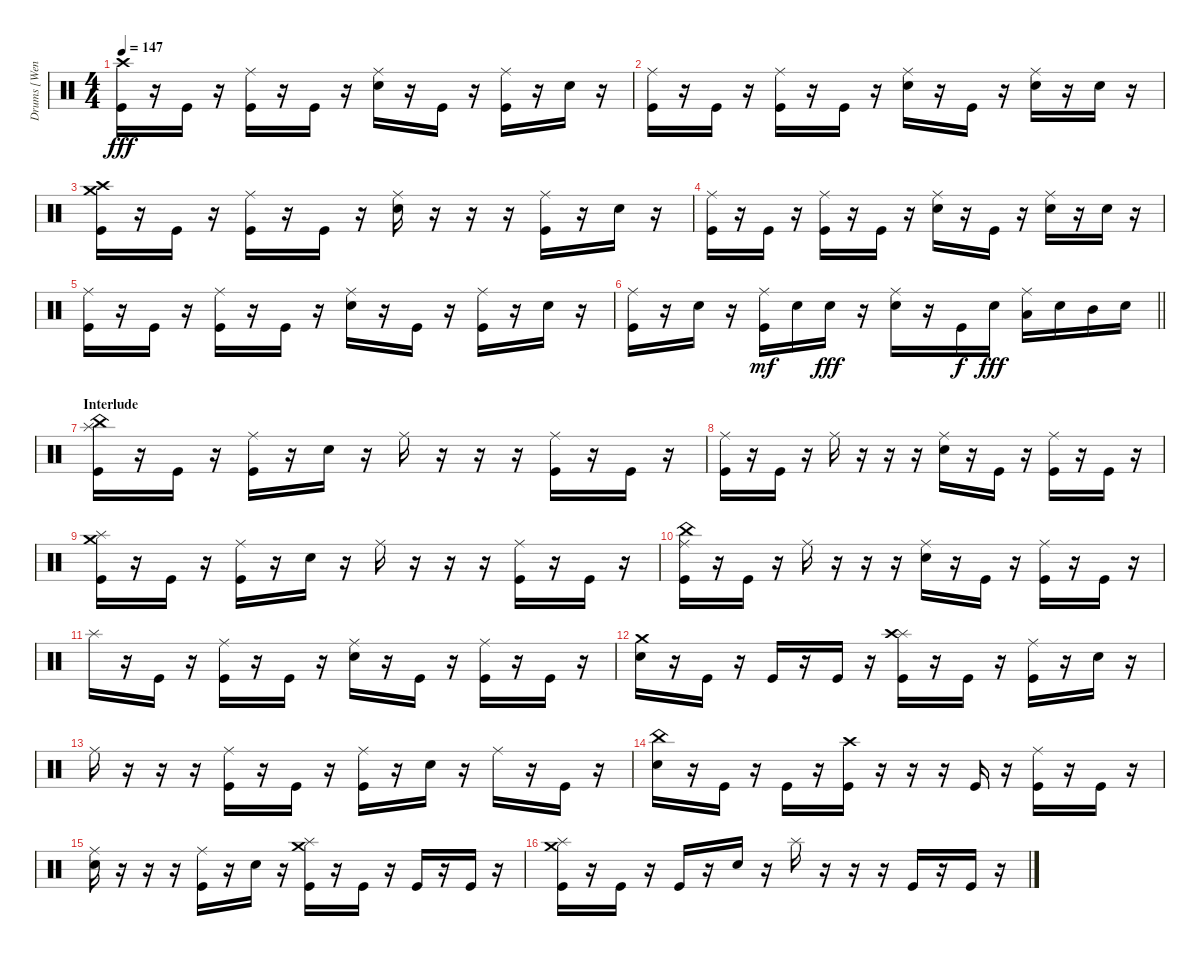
\track ("Drums [Wengren]" "Drums [Wen") {instrument percussion}
\staff {score}
\articulation defaults
\ts (4 4)
\tempo 147
\clef neutral
\ks c
("Crash high (hit)" "Kick (hit)").16{dy fff} r.16 "Kick (hit)".16 r.16 ("Ride (middle)" "Kick (hit)").16 r.16 "Kick (hit)".16 r.16 ("Ride (middle)" "Snare (hit) 2").16 r.16 "Kick (hit)".16 r.16 ("Ride (middle)" "Kick (hit)").16 r.16 "Snare (hit) 2".16 r.16 |
("Ride (middle)" "Kick (hit)").16 r.16 "Kick (hit)".16 r.16 ("Ride (middle)" "Kick (hit)").16 r.16 "Kick (hit)".16 r.16 ("Ride (middle)" "Snare (hit) 2").16 r.16 "Kick (hit)".16 r.16 ("Ride (middle)" "Snare (hit) 2").16 r.16 "Snare (hit) 2".16 r.16 |
("Crash high (hit)" "Crash medium (hit)" "Kick (hit)").16 r.16 "Kick (hit)".16 r.16 ("Ride (middle)" "Kick (hit)").16 r.16 "Kick (hit)".16 r.16 ("Ride (middle)" "Snare (hit) 2").16 r.16 r.16 r.16 ("Ride (middle)" "Kick (hit)").16 r.16 "Snare (hit) 2".16 r.16 |
("Ride (middle)" "Kick (hit)").16 r.16 "Kick (hit)".16 r.16 ("Ride (middle)" "Kick (hit)").16 r.16 "Kick (hit)".16 r.16 ("Ride (middle)" "Snare (hit) 2").16 r.16 "Kick (hit)".16 r.16 ("Ride (middle)" "Snare (hit) 2").16 r.16 "Snare (hit) 2".16 r.16 |
("Ride (middle)" "Kick (hit)").16 r.16 "Kick (hit)".16 r.16 ("Ride (middle)" "Kick (hit)").16 r.16 "Kick (hit)".16 r.16 ("Ride (middle)" "Snare (hit) 2").16 r.16 "Kick (hit)".16 r.16 ("Ride (middle)" "Kick (hit)").16 r.16 "Snare (hit) 2".16 r.16 |
\barLineRight lightlight
("Ride (middle)" "Kick (hit)").16 r.16 "Snare (hit) 2".16 r.16 ("Ride (middle)" "Kick (hit)").16{dy mf} "Snare (hit) 2".16 "Snare (hit) 2".16{dy fff} r.16 ("Ride (middle)" "Snare (hit) 2").16 r.16 "Kick (hit)".16{dy f} "Snare (hit) 2".16{dy fff} ("Ride (middle)" "Low Tom (hit)").16 "Snare (hit) 2".16 "Mid Tom (hit)".16 "Snare (hit) 2".16 |
\section ("" "Interlude")
("China (hit)" "Splash (hit)" "Kick (hit)").16 r.16 "Kick (hit)".16 r.16 ("Ride (middle)" "Kick (hit)").16 r.16 "Snare (hit) 2".16 r.16 "Ride (middle)".16 r.16 r.16 r.16 ("Ride (middle)" "Kick (hit)").16 r.16 "Kick (hit)".16 r.16 |
("Ride (middle)" "Kick (hit)").16 r.16 "Kick (hit)".16 r.16 "Ride (middle)".16 r.16 r.16 r.16 ("Ride (middle)" "Snare (hit) 2").16 r.16 "Kick (hit)".16 r.16 ("Ride (middle)" "Kick (hit)").16 r.16 "Kick (hit)".16 r.16 |
("Splash (hit)" "Crash medium (hit)" "Kick (hit)").16 r.16 "Kick (hit)".16 r.16 ("Ride (middle)" "Kick (hit)").16 r.16 "Snare (hit) 2".16 r.16 "Ride (middle)".16 r.16 r.16 r.16 ("Ride (middle)" "Kick (hit)").16 r.16 "Kick (hit)".16 r.16 |
("Ride (middle)" "China (hit)" "Kick (hit)").16 r.16 "Kick (hit)".16 r.16 "Ride (middle)".16 r.16 r.16 r.16 ("Ride (middle)" "Snare (hit) 2").16 r.16 "Kick (hit)".16 r.16 ("Ride (middle)" "Kick (hit)").16 r.16 "Kick (hit)".16 r.16 |
"Splash (hit)".16 r.16 "Kick (hit)".16 r.16 ("Ride (middle)" "Kick (hit)").16 r.16 "Kick (hit)".16 r.16 ("Ride (middle)" "Snare (hit) 2").16 r.16 "Kick (hit)".16 r.16 ("Ride (middle)" "Kick (hit)").16 r.16 "Kick (hit)".16 r.16 |
("Crash medium (hit)" "Snare (hit) 2").16 r.16 "Kick (hit)".16 r.16 "Kick (hit)".16 r.16 "Kick (hit)".16 r.16 ("Splash (hit)" "Crash high (hit)" "Kick (hit)").16 r.16 "Kick (hit)".16 r.16 ("Ride (middle)" "Kick (hit)").16 r.16 "Snare (hit) 2".16 r.16 |
"Ride (middle)".16 r.16 r.16 r.16 ("Ride (middle)" "Kick (hit)").16 r.16 "Kick (hit)".16 r.16 ("Ride (middle)" "Kick (hit)").16 r.16 "Snare (hit) 2".16 r.16 "Ride (middle)".16 r.16 "Kick (hit)".16 r.16 |
("China (hit)" "Snare (hit) 2").16 r.16 "Kick (hit)".16 r.16 "Kick (hit)".16 r.16 ("Crash high (hit)" "Kick (hit)").16 r.16 r.16 r.16 "Kick (hit)".16 r.16 ("Ride (middle)" "Kick (hit)").16 r.16 "Kick (hit)".16 r.16 |
("Ride (middle)" "Snare (hit) 2").16 r.16 r.16 r.16 ("Ride (middle)" "Kick (hit)").16 r.16 "Snare (hit) 2".16 r.16 ("Splash (hit)" "Crash medium (hit)" "Kick (hit)").16 r.16 "Kick (hit)".16 r.16 "Kick (hit)".16 r.16 "Kick (hit)".16 r.16 |
("Splash (hit)" "Crash medium (hit)" "Kick (hit)").16 r.16 "Kick (hit)".16 r.16 "Kick (hit)".16 r.16 "Snare (hit) 2".16 r.16 "Splash (hit)".16 r.16 r.16 r.16 "Kick (hit)".16 r.16 "Kick (hit)".16 r.16
